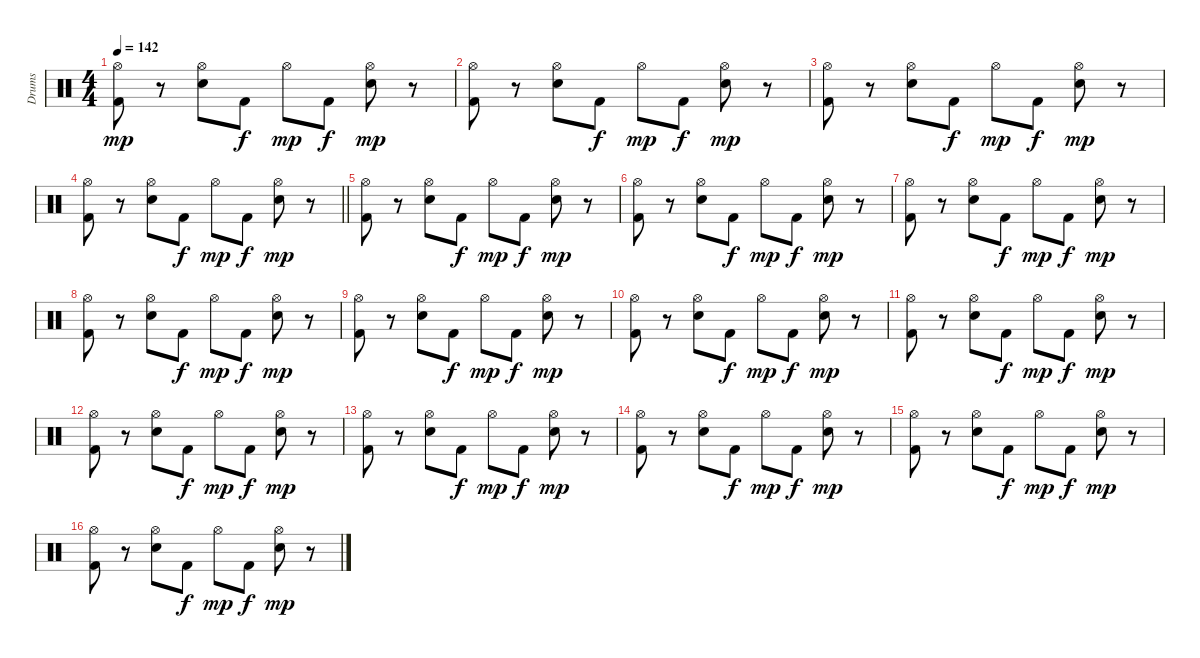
\track ("Drums" "Drums") {instrument percussion}
\staff {score}
\articulation defaults
\ts (4 4)
\tempo 142
\clef neutral
\ks c
("Hi-Hat (open)" "Kick (hit) 2").8{dy mp} r.8 ("Hi-Hat (open)" "Snare (hit) 2").8 "Kick (hit) 2".8{dy f} "Hi-Hat (open)".8{dy mp} "Kick (hit) 2".8{dy f} ("Hi-Hat (open)" "Snare (hit) 2").8{dy mp} r.8 |
("Hi-Hat (open)" "Kick (hit) 2").8 r.8 ("Hi-Hat (open)" "Snare (hit) 2").8 "Kick (hit) 2".8{dy f} "Hi-Hat (open)".8{dy mp} "Kick (hit) 2".8{dy f} ("Hi-Hat (open)" "Snare (hit) 2").8{dy mp} r.8 |
("Hi-Hat (open)" "Kick (hit) 2").8 r.8 ("Hi-Hat (open)" "Snare (hit) 2").8 "Kick (hit) 2".8{dy f} "Hi-Hat (open)".8{dy mp} "Kick (hit) 2".8{dy f} ("Hi-Hat (open)" "Snare (hit) 2").8{dy mp} r.8 |
\barLineRight lightlight
("Hi-Hat (open)" "Kick (hit) 2").8 r.8 ("Hi-Hat (open)" "Snare (hit) 2").8 "Kick (hit) 2".8{dy f} "Hi-Hat (open)".8{dy mp} "Kick (hit) 2".8{dy f} ("Hi-Hat (open)" "Snare (hit) 2").8{dy mp} r.8 |
("Hi-Hat (open)" "Kick (hit) 2").8 r.8 ("Hi-Hat (open)" "Snare (hit) 2").8 "Kick (hit) 2".8{dy f} "Hi-Hat (open)".8{dy mp} "Kick (hit) 2".8{dy f} ("Hi-Hat (open)" "Snare (hit) 2").8{dy mp} r.8 |
("Hi-Hat (open)" "Kick (hit) 2").8 r.8 ("Hi-Hat (open)" "Snare (hit) 2").8 "Kick (hit) 2".8{dy f} "Hi-Hat (open)".8{dy mp} "Kick (hit) 2".8{dy f} ("Hi-Hat (open)" "Snare (hit) 2").8{dy mp} r.8 |
("Hi-Hat (open)" "Kick (hit) 2").8 r.8 ("Hi-Hat (open)" "Snare (hit) 2").8 "Kick (hit) 2".8{dy f} "Hi-Hat (open)".8{dy mp} "Kick (hit) 2".8{dy f} ("Hi-Hat (open)" "Snare (hit) 2").8{dy mp} r.8 |
("Hi-Hat (open)" "Kick (hit) 2").8 r.8 ("Hi-Hat (open)" "Snare (hit) 2").8 "Kick (hit) 2".8{dy f} "Hi-Hat (open)".8{dy mp} "Kick (hit) 2".8{dy f} ("Hi-Hat (open)" "Snare (hit) 2").8{dy mp} r.8 |
("Hi-Hat (open)" "Kick (hit) 2").8 r.8 ("Hi-Hat (open)" "Snare (hit) 2").8 "Kick (hit) 2".8{dy f} "Hi-Hat (open)".8{dy mp} "Kick (hit) 2".8{dy f} ("Hi-Hat (open)" "Snare (hit) 2").8{dy mp} r.8 |
("Hi-Hat (open)" "Kick (hit) 2").8 r.8 ("Hi-Hat (open)" "Snare (hit) 2").8 "Kick (hit) 2".8{dy f} "Hi-Hat (open)".8{dy mp} "Kick (hit) 2".8{dy f} ("Hi-Hat (open)" "Snare (hit) 2").8{dy mp} r.8 |
("Hi-Hat (open)" "Kick (hit) 2").8 r.8 ("Hi-Hat (open)" "Snare (hit) 2").8 "Kick (hit) 2".8{dy f} "Hi-Hat (open)".8{dy mp} "Kick (hit) 2".8{dy f} ("Hi-Hat (open)" "Snare (hit) 2").8{dy mp} r.8 |
("Hi-Hat (open)" "Kick (hit) 2").8 r.8 ("Hi-Hat (open)" "Snare (hit) 2").8 "Kick (hit) 2".8{dy f} "Hi-Hat (open)".8{dy mp} "Kick (hit) 2".8{dy f} ("Hi-Hat (open)" "Snare (hit) 2").8{dy mp} r.8 |
("Hi-Hat (open)" "Kick (hit) 2").8 r.8 ("Hi-Hat (open)" "Snare (hit) 2").8 "Kick (hit) 2".8{dy f} "Hi-Hat (open)".8{dy mp} "Kick (hit) 2".8{dy f} ("Hi-Hat (open)" "Snare (hit) 2").8{dy mp} r.8 |
("Hi-Hat (open)" "Kick (hit) 2").8 r.8 ("Hi-Hat (open)" "Snare (hit) 2").8 "Kick (hit) 2".8{dy f} "Hi-Hat (open)".8{dy mp} "Kick (hit) 2".8{dy f} ("Hi-Hat (open)" "Snare (hit) 2").8{dy mp} r.8 |
("Hi-Hat (open)" "Kick (hit) 2").8 r.8 ("Hi-Hat (open)" "Snare (hit) 2").8 "Kick (hit) 2".8{dy f} "Hi-Hat (open)".8{dy mp} "Kick (hit) 2".8{dy f} ("Hi-Hat (open)" "Snare (hit) 2").8{dy mp} r.8 |
("Hi-Hat (open)" "Kick (hit) 2").8 r.8 ("Hi-Hat (open)" "Snare (hit) 2").8 "Kick (hit) 2".8{dy f} "Hi-Hat (open)".8{dy mp} "Kick (hit) 2".8{dy f} ("Hi-Hat (open)" "Snare (hit) 2").8{dy mp} r.8
